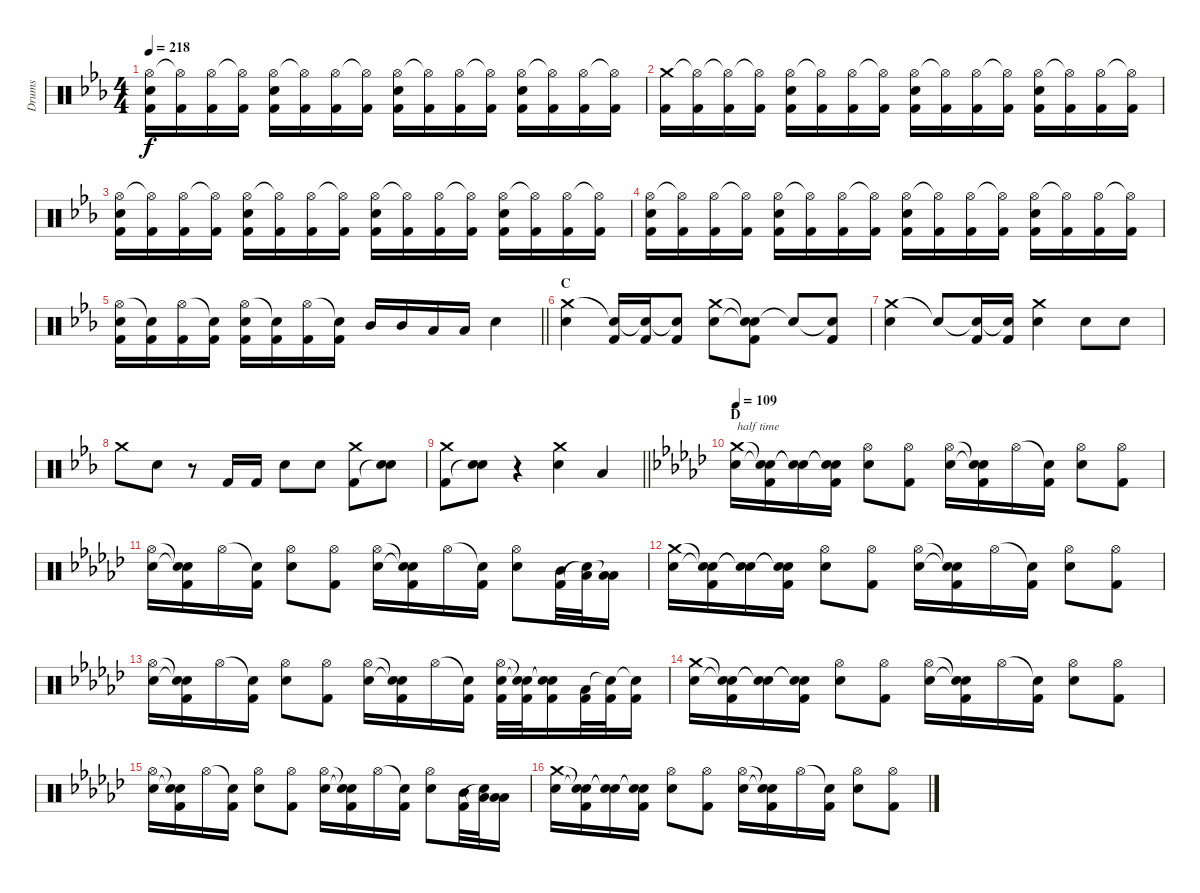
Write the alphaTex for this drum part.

\track ("Drums" "Drums") {instrument percussion}
\staff {score}
\articulation defaults
\ts (4 4)
\tempo 218
\clef neutral
\ks eb
("Hi-Hat (open)" "Electric Snare (hit)" "Kick (hit) 2").16{dy f} ("Hi-Hat (open)"{t} "Kick (hit) 2").16 ("Hi-Hat (open)" "Kick (hit) 2").16 ("Hi-Hat (open)"{t} "Kick (hit) 2").16 ("Hi-Hat (open)" "Electric Snare (hit)" "Kick (hit) 2").16 ("Hi-Hat (open)"{t} "Kick (hit) 2").16 ("Hi-Hat (open)" "Kick (hit) 2").16 ("Hi-Hat (open)"{t} "Kick (hit) 2").16 ("Hi-Hat (open)" "Electric Snare (hit)" "Kick (hit) 2").16 ("Hi-Hat (open)"{t} "Kick (hit) 2").16 ("Hi-Hat (open)" "Kick (hit) 2").16 ("Hi-Hat (open)"{t} "Kick (hit) 2").16 ("Hi-Hat (open)" "Electric Snare (hit)" "Kick (hit) 2").16 ("Hi-Hat (open)"{t} "Kick (hit) 2").16 ("Hi-Hat (open)" "Kick (hit) 2").16 ("Hi-Hat (open)"{t} "Kick (hit) 2").16 |
("Crash medium (hit)" "Kick (hit) 2").16 ("Hi-Hat (open)"{t} "Kick (hit) 2").16 ("Hi-Hat (open)"{t} "Kick (hit) 2").16 ("Hi-Hat (open)"{t} "Kick (hit) 2").16 ("Hi-Hat (open)" "Electric Snare (hit)" "Kick (hit) 2").16 ("Hi-Hat (open)"{t} "Kick (hit) 2").16 ("Hi-Hat (open)" "Kick (hit) 2").16 ("Hi-Hat (open)"{t} "Kick (hit) 2").16 ("Hi-Hat (open)" "Electric Snare (hit)" "Kick (hit) 2").16 ("Hi-Hat (open)"{t} "Kick (hit) 2").16 ("Hi-Hat (open)" "Kick (hit) 2").16 ("Hi-Hat (open)"{t} "Kick (hit) 2").16 ("Hi-Hat (open)" "Electric Snare (hit)" "Kick (hit) 2").16 ("Hi-Hat (open)"{t} "Kick (hit) 2").16 ("Hi-Hat (open)" "Kick (hit) 2").16 ("Hi-Hat (open)"{t} "Kick (hit) 2").16 |
("Hi-Hat (open)" "Electric Snare (hit)" "Kick (hit) 2").16 ("Hi-Hat (open)"{t} "Kick (hit) 2").16 ("Hi-Hat (open)" "Kick (hit) 2").16 ("Hi-Hat (open)"{t} "Kick (hit) 2").16 ("Hi-Hat (open)" "Electric Snare (hit)" "Kick (hit) 2").16 ("Hi-Hat (open)"{t} "Kick (hit) 2").16 ("Hi-Hat (open)" "Kick (hit) 2").16 ("Hi-Hat (open)"{t} "Kick (hit) 2").16 ("Hi-Hat (open)" "Electric Snare (hit)" "Kick (hit) 2").16 ("Hi-Hat (open)"{t} "Kick (hit) 2").16 ("Hi-Hat (open)" "Kick (hit) 2").16 ("Hi-Hat (open)"{t} "Kick (hit) 2").16 ("Hi-Hat (open)" "Electric Snare (hit)" "Kick (hit) 2").16 ("Hi-Hat (open)"{t} "Kick (hit) 2").16 ("Hi-Hat (open)" "Kick (hit) 2").16 ("Hi-Hat (open)"{t} "Kick (hit) 2").16 |
("Hi-Hat (open)" "Electric Snare (hit)" "Kick (hit) 2").16 ("Hi-Hat (open)"{t} "Kick (hit) 2").16 ("Hi-Hat (open)" "Kick (hit) 2").16 ("Hi-Hat (open)"{t} "Kick (hit) 2").16 ("Hi-Hat (open)" "Electric Snare (hit)" "Kick (hit) 2").16 ("Hi-Hat (open)"{t} "Kick (hit) 2").16 ("Hi-Hat (open)" "Kick (hit) 2").16 ("Hi-Hat (open)"{t} "Kick (hit) 2").16 ("Hi-Hat (open)" "Electric Snare (hit)" "Kick (hit) 2").16 ("Hi-Hat (open)"{t} "Kick (hit) 2").16 ("Hi-Hat (open)" "Kick (hit) 2").16 ("Hi-Hat (open)"{t} "Kick (hit) 2").16 ("Hi-Hat (open)" "Electric Snare (hit)" "Kick (hit) 2").16 ("Hi-Hat (open)"{t} "Kick (hit) 2").16 ("Hi-Hat (open)" "Kick (hit) 2").16 ("Hi-Hat (open)"{t} "Kick (hit) 2").16 |
\barLineRight lightlight
("Hi-Hat (open)" "Electric Snare (hit)" "Kick (hit) 2").16 ("Snare (hit)"{t} "Kick (hit) 2").16 ("Hi-Hat (open)" "Kick (hit) 2").16 ("Snare (hit)"{t} "Kick (hit) 2").16 ("Hi-Hat (open)" "Electric Snare (hit)" "Kick (hit) 2").16 ("Snare (hit)"{t} "Kick (hit) 2").16 ("Hi-Hat (open)" "Kick (hit) 2").16 ("Snare (hit)"{t} "Kick (hit) 2").16 "Mid Tom (hit)".16 "Mid Tom (hit)".16 "Low Tom (hit)".16 "Low Floor Tom (hit)".16 "Electric Snare (hit)".4 |
\section ("" "C")
("Crash medium (hit)" "Electric Snare (hit)").4 ("Snare (hit)"{t} "Kick (hit) 2").16 ("Snare (hit)"{t} "Kick (hit) 2").16 ("Snare (hit)"{t} "Kick (hit) 2").8 ("Crash medium (hit)" "Electric Snare (hit)").8 ("Snare (hit)"{t} "Snare (hit)"{t} "Kick (hit) 2").8 "Snare (hit)"{t}.8 ("Snare (hit)"{t} "Kick (hit) 2").8 |
("Crash medium (hit)" "Electric Snare (hit)").4 "Snare (hit)"{t}.8 ("Snare (hit)"{t} "Kick (hit) 2").16 ("Snare (hit)"{t} "Kick (hit) 2").16 ("Crash medium (hit)" "Electric Snare (hit)").4 "Electric Snare (hit)".8 "Electric Snare (hit)".8 |
"Crash medium (hit)".8 "Electric Snare (hit)".8 r.8 "Kick (hit) 2".16 "Kick (hit) 2".16 "Electric Snare (hit)".8 "Electric Snare (hit)".8 ("Crash medium (hit)" "Kick (hit) 2").8 ("Electric Snare (hit)" "Snare (hit)"{t}).8 |
\barLineRight lightlight
("Crash medium (hit)" "Kick (hit) 2").8 ("Electric Snare (hit)" "Snare (hit)"{t}).8 r.4 ("Crash medium (hit)" "Electric Snare (hit)").4 "Low Floor Tom (hit)".4 |
\section ("" "D")
\tempo 109
\ks ebminor
("Crash medium (hit)" "Electric Snare (hit)").16{txt "half time"} ("Snare (hit)"{t} "Snare (hit)"{t} "Kick (hit) 2").16 ("Snare (hit)"{t} "Snare (hit)"{t}).16 ("Snare (hit)"{t} "Snare (hit)"{t} "Kick (hit) 2").16 ("Hi-Hat (open)" "Electric Snare (hit)").8 ("Hi-Hat (open)" "Kick (hit) 2").8 ("Hi-Hat (open)" "Electric Snare (hit)").16 ("Snare (hit)"{t} "Snare (hit)"{t} "Kick (hit) 2").16 "Hi-Hat (open)".16 ("Snare (hit)"{t} "Kick (hit) 2").16 ("Hi-Hat (open)" "Electric Snare (hit)").8 ("Hi-Hat (open)" "Kick (hit) 2").8 |
("Hi-Hat (open)" "Electric Snare (hit)").16 ("Snare (hit)"{t} "Snare (hit)"{t} "Kick (hit) 2").16 "Hi-Hat (open)".16 ("Snare (hit)"{t} "Kick (hit) 2").16 ("Hi-Hat (open)" "Electric Snare (hit)").8 ("Hi-Hat (open)" "Kick (hit) 2").8 ("Hi-Hat (open)" "Electric Snare (hit)").16 ("Snare (hit)"{t} "Snare (hit)"{t} "Kick (hit) 2").16 "Hi-Hat (open)".16 ("Snare (hit)"{t} "Kick (hit) 2").16 ("Hi-Hat (open)" "Electric Snare (hit)").8 ("Mid Tom (hit)" "Kick (hit) 2").32 ("Low Tom (hit)" "Snare (hit)"{t}).32 ("Low Floor Tom (hit)" "Low Floor Tom (hit)"{t}).16 |
("Crash medium (hit)" "Electric Snare (hit)").16 ("Snare (hit)"{t} "Snare (hit)"{t} "Kick (hit) 2").16 ("Snare (hit)"{t} "Snare (hit)"{t}).16 ("Snare (hit)"{t} "Snare (hit)"{t} "Kick (hit) 2").16 ("Hi-Hat (open)" "Electric Snare (hit)").8 ("Hi-Hat (open)" "Kick (hit) 2").8 ("Hi-Hat (open)" "Electric Snare (hit)").16 ("Snare (hit)"{t} "Snare (hit)"{t} "Kick (hit) 2").16 "Hi-Hat (open)".16 ("Snare (hit)"{t} "Kick (hit) 2").16 ("Hi-Hat (open)" "Electric Snare (hit)").8 ("Hi-Hat (open)" "Kick (hit) 2").8 |
("Hi-Hat (open)" "Electric Snare (hit)").16 ("Snare (hit)"{t} "Snare (hit)"{t} "Kick (hit) 2").16 "Hi-Hat (open)".16 ("Snare (hit)"{t} "Kick (hit) 2").16 ("Hi-Hat (open)" "Electric Snare (hit)").8 ("Hi-Hat (open)" "Kick (hit) 2").8 ("Hi-Hat (open)" "Electric Snare (hit)").16 ("Snare (hit)"{t} "Snare (hit)"{t} "Kick (hit) 2").16 "Hi-Hat (open)".16 ("Snare (hit)"{t} "Kick (hit) 2").16 ("Hi-Hat (open)" "Electric Snare (hit)" "Kick (hit) 2").32 ("Snare (hit)"{t} "Snare (hit)"{t} "Kick (hit) 2").32 ("Snare (hit)"{t} "Snare (hit)"{t} "Kick (hit) 2").16 ("Low Floor Tom (hit)" "Kick (hit) 2").32 ("Snare (hit)"{t} "Kick (hit) 2").32 ("Snare (hit)"{t} "Kick (hit) 2").16 |
("Crash medium (hit)" "Electric Snare (hit)").16 ("Snare (hit)"{t} "Snare (hit)"{t} "Kick (hit) 2").16 ("Snare (hit)"{t} "Snare (hit)"{t}).16 ("Snare (hit)"{t} "Snare (hit)"{t} "Kick (hit) 2").16 ("Hi-Hat (open)" "Electric Snare (hit)").8 ("Hi-Hat (open)" "Kick (hit) 2").8 ("Hi-Hat (open)" "Electric Snare (hit)").16 ("Snare (hit)"{t} "Snare (hit)"{t} "Kick (hit) 2").16 "Hi-Hat (open)".16 ("Snare (hit)"{t} "Kick (hit) 2").16 ("Hi-Hat (open)" "Electric Snare (hit)").8 ("Hi-Hat (open)" "Kick (hit) 2").8 |
("Hi-Hat (open)" "Electric Snare (hit)").16 ("Snare (hit)"{t} "Snare (hit)"{t} "Kick (hit) 2").16 "Hi-Hat (open)".16 ("Snare (hit)"{t} "Kick (hit) 2").16 ("Hi-Hat (open)" "Electric Snare (hit)").8 ("Hi-Hat (open)" "Kick (hit) 2").8 ("Hi-Hat (open)" "Electric Snare (hit)").16 ("Snare (hit)"{t} "Snare (hit)"{t} "Kick (hit) 2").16 "Hi-Hat (open)".16 ("Snare (hit)"{t} "Kick (hit) 2").16 ("Hi-Hat (open)" "Electric Snare (hit)").8 ("Mid Tom (hit)" "Kick (hit) 2").32 ("Low Tom (hit)" "Snare (hit)"{t}).32 ("Low Floor Tom (hit)" "Low Floor Tom (hit)"{t}).16 |
("Crash medium (hit)" "Electric Snare (hit)").16 ("Snare (hit)"{t} "Snare (hit)"{t} "Kick (hit) 2").16 ("Snare (hit)"{t} "Snare (hit)"{t}).16 ("Snare (hit)"{t} "Snare (hit)"{t} "Kick (hit) 2").16 ("Hi-Hat (open)" "Electric Snare (hit)").8 ("Hi-Hat (open)" "Kick (hit) 2").8 ("Hi-Hat (open)" "Electric Snare (hit)").16 ("Snare (hit)"{t} "Snare (hit)"{t} "Kick (hit) 2").16 "Hi-Hat (open)".16 ("Snare (hit)"{t} "Kick (hit) 2").16 ("Hi-Hat (open)" "Electric Snare (hit)").8 ("Hi-Hat (open)" "Kick (hit) 2").8
